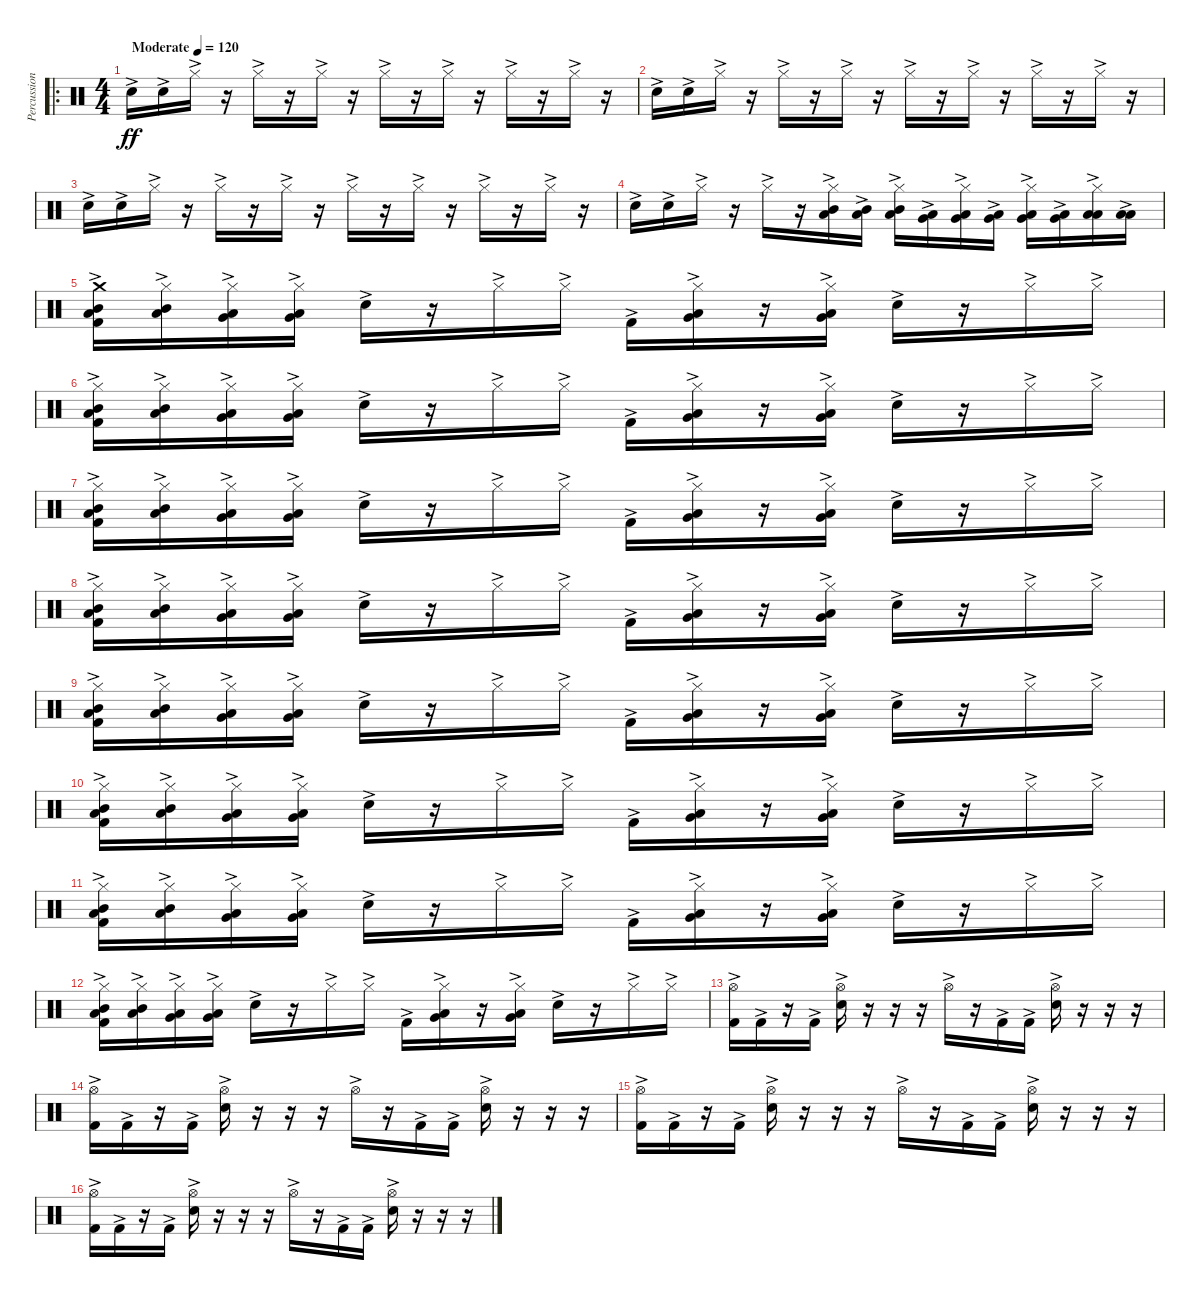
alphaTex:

\track ("Percussion" "Percussion") {instrument percussion}
\staff {score}
\articulation defaults
\ro
\ts (4 4)
\tempo (120 "Moderate")
\clef neutral
\ks c "Snare (hit) 2"{ac}.16{dy ff} "Snare (hit) 2"{ac}.16 "Hi-Hat (closed)"{ac}.16
r.16 "Hi-Hat (closed)"{ac}.16 r.16 "Hi-Hat (closed)"{ac}.16 r.16 "Hi-Hat (closed)"{ac}.16 r.16 "Hi-Hat (closed)"{ac}.16 r.16 "Hi-Hat (closed)"{ac}.16 r.16 "Hi-Hat (closed)"{ac}.16 r.16 |
"Snare (hit) 2"{ac}.16 "Snare (hit) 2"{ac}.16 "Hi-Hat (closed)"{ac}.16 r.16 "Hi-Hat (closed)"{ac}.16 r.16 "Hi-Hat (closed)"{ac}.16 r.16 "Hi-Hat (closed)"{ac}.16 r.16 "Hi-Hat (closed)"{ac}.16 r.16 "Hi-Hat (closed)"{ac}.16 r.16 "Hi-Hat (closed)"{ac}.16 r.16 |
"Snare (hit) 2"{ac}.16 "Snare (hit) 2"{ac}.16 "Hi-Hat (closed)"{ac}.16 r.16 "Hi-Hat (closed)"{ac}.16 r.16 "Hi-Hat (closed)"{ac}.16 r.16 "Hi-Hat (closed)"{ac}.16 r.16 "Hi-Hat (closed)"{ac}.16 r.16 "Hi-Hat (closed)"{ac}.16 r.16 "Hi-Hat (closed)"{ac}.16 r.16 |
"Snare (hit) 2"{ac}.16 "Snare (hit) 2"{ac}.16 "Hi-Hat (closed)"{ac}.16 r.16 "Hi-Hat (closed)"{ac}.16 r.16 ("Hi-Hat (closed)"{ac} "Mid Tom (hit)"{ac} "Low Tom (hit)"{ac}).16 ("Mid Tom (hit)"{ac} "Low Tom (hit)"{ac}).16 ("Hi-Hat (closed)"{ac} "Mid Tom (hit)"{ac} "Low Tom (hit)"{ac}).16 ("Low Tom (hit)"{ac} "Very Low Tom (hit)"{ac}).16 ("Hi-Hat (closed)"{ac} "Low Tom (hit)"{ac} "Very Low Tom (hit)"{ac}).16 ("Low Tom (hit)"{ac} "Very Low Tom (hit)"{ac}).16 ("Hi-Hat (closed)"{ac} "Very Low Tom (hit)"{ac} "Low Floor Tom (hit)"{ac}).16 ("Very Low Tom (hit)"{ac} "Low Floor Tom (hit)"{ac}).16 ("Hi-Hat (closed)"{ac} "Low Floor Tom (hit)"{ac} "Low Floor Tom (hit)"{ac}).16 ("Low Floor Tom (hit)"{ac} "Low Floor Tom (hit)"{ac}).16 |
("Crash medium (hit)"{ac} "Low Tom (hit)"{ac} "Mid Tom (hit)"{ac} "Kick (hit) 2"{ac}).16 ("Hi-Hat (closed)"{ac} "Low Tom (hit)"{ac} "Mid Tom (hit)"{ac}).16 ("Hi-Hat (closed)"{ac} "Very Low Tom (hit)"{ac} "Low Tom (hit)"{ac}).16 ("Hi-Hat (closed)"{ac} "Very Low Tom (hit)"{ac} "Low Tom (hit)"{ac}).16 "Snare (hit) 2"{ac}.16 r.16 "Hi-Hat (closed)"{ac}.16 "Hi-Hat (closed)"{ac}.16 "Kick (hit) 2"{ac}.16 ("Hi-Hat (closed)"{ac} "Low Tom (hit)"{ac} "Very Low Tom (hit)"{ac}).16 r.16 ("Hi-Hat (closed)"{ac} "Low Tom (hit)"{ac} "Very Low Tom (hit)"{ac}).16 "Snare (hit) 2"{ac}.16 r.16 "Hi-Hat (closed)"{ac}.16 "Hi-Hat (closed)"{ac}.16 |
("Hi-Hat (closed)"{ac} "Low Tom (hit)"{ac} "Mid Tom (hit)"{ac} "Kick (hit) 2"{ac}).16 ("Hi-Hat (closed)"{ac} "Low Tom (hit)"{ac} "Mid Tom (hit)"{ac}).16 ("Hi-Hat (closed)"{ac} "Very Low Tom (hit)"{ac} "Low Tom (hit)"{ac}).16 ("Hi-Hat (closed)"{ac} "Very Low Tom (hit)"{ac} "Low Tom (hit)"{ac}).16 "Snare (hit) 2"{ac}.16 r.16 "Hi-Hat (closed)"{ac}.16 "Hi-Hat (closed)"{ac}.16 "Kick (hit) 2"{ac}.16 ("Hi-Hat (closed)"{ac} "Low Tom (hit)"{ac} "Very Low Tom (hit)"{ac}).16 r.16 ("Hi-Hat (closed)"{ac} "Low Tom (hit)"{ac} "Very Low Tom (hit)"{ac}).16 "Snare (hit) 2"{ac}.16 r.16 "Hi-Hat (closed)"{ac}.16 "Hi-Hat (closed)"{ac}.16 |
("Hi-Hat (closed)"{ac} "Low Tom (hit)"{ac} "Mid Tom (hit)"{ac} "Kick (hit) 2"{ac}).16 ("Hi-Hat (closed)"{ac} "Low Tom (hit)"{ac} "Mid Tom (hit)"{ac}).16 ("Hi-Hat (closed)"{ac} "Very Low Tom (hit)"{ac} "Low Tom (hit)"{ac}).16 ("Hi-Hat (closed)"{ac} "Very Low Tom (hit)"{ac} "Low Tom (hit)"{ac}).16 "Snare (hit) 2"{ac}.16 r.16 "Hi-Hat (closed)"{ac}.16 "Hi-Hat (closed)"{ac}.16 "Kick (hit) 2"{ac}.16 ("Hi-Hat (closed)"{ac} "Low Tom (hit)"{ac} "Very Low Tom (hit)"{ac}).16 r.16 ("Hi-Hat (closed)"{ac} "Low Tom (hit)"{ac} "Very Low Tom (hit)"{ac}).16 "Snare (hit) 2"{ac}.16 r.16 "Hi-Hat (closed)"{ac}.16 "Hi-Hat (closed)"{ac}.16 |
("Hi-Hat (closed)"{ac} "Low Tom (hit)"{ac} "Mid Tom (hit)"{ac} "Kick (hit) 2"{ac}).16 ("Hi-Hat (closed)"{ac} "Low Tom (hit)"{ac} "Mid Tom (hit)"{ac}).16 ("Hi-Hat (closed)"{ac} "Very Low Tom (hit)"{ac} "Low Tom (hit)"{ac}).16 ("Hi-Hat (closed)"{ac} "Very Low Tom (hit)"{ac} "Low Tom (hit)"{ac}).16 "Snare (hit) 2"{ac}.16 r.16 "Hi-Hat (closed)"{ac}.16 "Hi-Hat (closed)"{ac}.16 "Kick (hit) 2"{ac}.16 ("Hi-Hat (closed)"{ac} "Low Tom (hit)"{ac} "Very Low Tom (hit)"{ac}).16 r.16 ("Hi-Hat (closed)"{ac} "Low Tom (hit)"{ac} "Very Low Tom (hit)"{ac}).16 "Snare (hit) 2"{ac}.16 r.16 "Hi-Hat (closed)"{ac}.16 "Hi-Hat (closed)"{ac}.16 |
("Hi-Hat (closed)"{ac} "Low Tom (hit)"{ac} "Mid Tom (hit)"{ac} "Kick (hit) 2"{ac}).16 ("Hi-Hat (closed)"{ac} "Low Tom (hit)"{ac} "Mid Tom (hit)"{ac}).16 ("Hi-Hat (closed)"{ac} "Very Low Tom (hit)"{ac} "Low Tom (hit)"{ac}).16 ("Hi-Hat (closed)"{ac} "Very Low Tom (hit)"{ac} "Low Tom (hit)"{ac}).16 "Snare (hit) 2"{ac}.16 r.16 "Hi-Hat (closed)"{ac}.16 "Hi-Hat (closed)"{ac}.16 "Kick (hit) 2"{ac}.16 ("Hi-Hat (closed)"{ac} "Low Tom (hit)"{ac} "Very Low Tom (hit)"{ac}).16 r.16 ("Hi-Hat (closed)"{ac} "Low Tom (hit)"{ac} "Very Low Tom (hit)"{ac}).16 "Snare (hit) 2"{ac}.16 r.16 "Hi-Hat (closed)"{ac}.16 "Hi-Hat (closed)"{ac}.16 |
("Hi-Hat (closed)"{ac} "Low Tom (hit)"{ac} "Mid Tom (hit)"{ac} "Kick (hit) 2"{ac}).16 ("Hi-Hat (closed)"{ac} "Low Tom (hit)"{ac} "Mid Tom (hit)"{ac}).16 ("Hi-Hat (closed)"{ac} "Very Low Tom (hit)"{ac} "Low Tom (hit)"{ac}).16 ("Hi-Hat (closed)"{ac} "Very Low Tom (hit)"{ac} "Low Tom (hit)"{ac}).16 "Snare (hit) 2"{ac}.16 r.16 "Hi-Hat (closed)"{ac}.16 "Hi-Hat (closed)"{ac}.16 "Kick (hit) 2"{ac}.16 ("Hi-Hat (closed)"{ac} "Low Tom (hit)"{ac} "Very Low Tom (hit)"{ac}).16 r.16 ("Hi-Hat (closed)"{ac} "Low Tom (hit)"{ac} "Very Low Tom (hit)"{ac}).16 "Snare (hit) 2"{ac}.16 r.16 "Hi-Hat (closed)"{ac}.16 "Hi-Hat (closed)"{ac}.16 |
("Hi-Hat (closed)"{ac} "Low Tom (hit)"{ac} "Mid Tom (hit)"{ac} "Kick (hit) 2"{ac}).16 ("Hi-Hat (closed)"{ac} "Low Tom (hit)"{ac} "Mid Tom (hit)"{ac}).16 ("Hi-Hat (closed)"{ac} "Very Low Tom (hit)"{ac} "Low Tom (hit)"{ac}).16 ("Hi-Hat (closed)"{ac} "Very Low Tom (hit)"{ac} "Low Tom (hit)"{ac}).16 "Snare (hit) 2"{ac}.16 r.16 "Hi-Hat (closed)"{ac}.16 "Hi-Hat (closed)"{ac}.16 "Kick (hit) 2"{ac}.16 ("Hi-Hat (closed)"{ac} "Low Tom (hit)"{ac} "Very Low Tom (hit)"{ac}).16 r.16 ("Hi-Hat (closed)"{ac} "Low Tom (hit)"{ac} "Very Low Tom (hit)"{ac}).16 "Snare (hit) 2"{ac}.16 r.16 "Hi-Hat (closed)"{ac}.16 "Hi-Hat (closed)"{ac}.16 |
("Hi-Hat (closed)"{ac} "Low Tom (hit)"{ac} "Mid Tom (hit)"{ac} "Kick (hit) 2"{ac}).16 ("Hi-Hat (closed)"{ac} "Low Tom (hit)"{ac} "Mid Tom (hit)"{ac}).16 ("Hi-Hat (closed)"{ac} "Very Low Tom (hit)"{ac} "Low Tom (hit)"{ac}).16 ("Hi-Hat (closed)"{ac} "Very Low Tom (hit)"{ac} "Low Tom (hit)"{ac}).16 "Snare (hit) 2"{ac}.16 r.16 "Hi-Hat (closed)"{ac}.16 "Hi-Hat (closed)"{ac}.16 "Kick (hit) 2"{ac}.16 ("Hi-Hat (closed)"{ac} "Low Tom (hit)"{ac} "Very Low Tom (hit)"{ac}).16 r.16 ("Hi-Hat (closed)"{ac} "Low Tom (hit)"{ac} "Very Low Tom (hit)"{ac}).16 "Snare (hit) 2"{ac}.16 r.16 "Hi-Hat (closed)"{ac}.16 "Hi-Hat (closed)"{ac}.16 |
("Hi-Hat (open)"{ac} "Kick (hit) 2"{ac}).16 "Kick (hit) 2"{ac}.16 r.16 "Kick (hit) 2"{ac}.16 ("Hi-Hat (open)"{ac} "Snare (hit) 2"{ac}).16 r.16 r.16 r.16 "Hi-Hat (open)"{ac}.16 r.16 "Kick (hit) 2"{ac}.16 "Kick (hit) 2"{ac}.16 ("Hi-Hat (open)"{ac} "Snare (hit) 2"{ac}).16 r.16 r.16 r.16 |
("Hi-Hat (open)"{ac} "Kick (hit) 2"{ac}).16 "Kick (hit) 2"{ac}.16 r.16 "Kick (hit) 2"{ac}.16 ("Hi-Hat (open)"{ac} "Snare (hit) 2"{ac}).16 r.16 r.16 r.16 "Hi-Hat (open)"{ac}.16 r.16 "Kick (hit) 2"{ac}.16 "Kick (hit) 2"{ac}.16 ("Hi-Hat (open)"{ac} "Snare (hit) 2"{ac}).16 r.16 r.16 r.16 |
("Hi-Hat (open)"{ac} "Kick (hit) 2"{ac}).16 "Kick (hit) 2"{ac}.16 r.16 "Kick (hit) 2"{ac}.16 ("Hi-Hat (open)"{ac} "Snare (hit) 2"{ac}).16 r.16 r.16 r.16 "Hi-Hat (open)"{ac}.16 r.16 "Kick (hit) 2"{ac}.16 "Kick (hit) 2"{ac}.16 ("Hi-Hat (open)"{ac} "Snare (hit) 2"{ac}).16 r.16 r.16 r.16 |
("Hi-Hat (open)"{ac} "Kick (hit) 2"{ac}).16 "Kick (hit) 2"{ac}.16 r.16 "Kick (hit) 2"{ac}.16 ("Hi-Hat (open)"{ac} "Snare (hit) 2"{ac}).16 r.16 r.16 r.16 "Hi-Hat (open)"{ac}.16 r.16 "Kick (hit) 2"{ac}.16 "Kick (hit) 2"{ac}.16 ("Hi-Hat (open)"{ac} "Snare (hit) 2"{ac}).16 r.16 r.16 r.16
